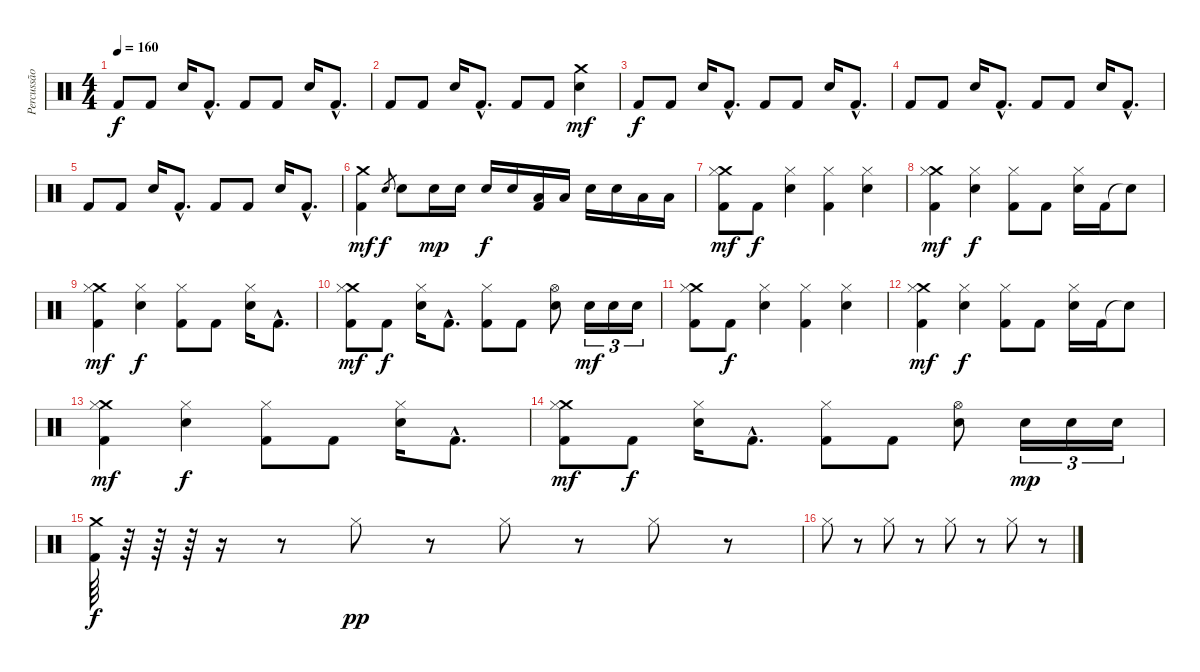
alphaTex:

\track ("Percussão" "Percussão") {instrument percussion}
\staff {score}
\articulation defaults
\ts (4 4)
\tempo 160
\clef neutral
\ks c "Kick (hit) 2".8{dy f} "Kick (hit) 2".8 "Snare (hit) 2".16 "Kick (hit) 2"{hac}.8{d} "Kick (hit) 2".8 "Kick (hit) 2".8 "Snare (hit) 2".16 "Kick (hit) 2"{hac}.8{d}
|
"Kick (hit) 2".8 "Kick (hit) 2".8 "Snare (hit) 2".16 "Kick (hit) 2"{hac}.8{d} "Kick (hit) 2".8 "Kick (hit) 2".8 ("Crash medium (hit)" "Snare (hit) 2").4{dy mf} |
"Kick (hit) 2".8{dy f} "Kick (hit) 2".8 "Snare (hit) 2".16 "Kick (hit) 2"{hac}.8{d} "Kick (hit) 2".8 "Kick (hit) 2".8 "Snare (hit) 2".16 "Kick (hit) 2"{hac}.8{d} |
"Kick (hit) 2".8 "Kick (hit) 2".8 "Snare (hit) 2".16 "Kick (hit) 2"{hac}.8{d} "Kick (hit) 2".8 "Kick (hit) 2".8 "Snare (hit) 2".16 "Kick (hit) 2"{hac}.8{d} |
"Kick (hit) 2".8 "Kick (hit) 2".8 "Snare (hit) 2".16 "Kick (hit) 2"{hac}.8{d} "Kick (hit) 2".8 "Kick (hit) 2".8 "Snare (hit) 2".16 "Kick (hit) 2"{hac}.8{d} |
("Crash medium (hit)" "Kick (hit) 2").4{dy mf} "Snare (hit) 2".8{gr dy f} "Snare (hit) 2".8 "Snare (hit) 2".16{dy mp} "Snare (hit) 2".16 "Snare (hit) 2".16{dy f} "Snare (hit) 2".16 ("Low Tom (hit)" "Kick (hit) 2").16 "Low Tom (hit)".16 "Snare (hit) 2".16 "Snare (hit) 2".16 "Low Tom (hit)".16 "Low Tom (hit)".16 |
("Crash medium (hit)" "Hi-Hat (closed)" "Kick (hit) 2").8{dy mf} "Kick (hit) 2".8{dy f} ("Hi-Hat (closed)" "Snare (hit) 2").4 ("Hi-Hat (closed)" "Kick (hit) 2").4 ("Hi-Hat (closed)" "Snare (hit) 2").4 |
("Crash medium (hit)" "Hi-Hat (closed)" "Kick (hit) 2").4{dy mf} ("Hi-Hat (closed)" "Snare (hit) 2").4{dy f} ("Hi-Hat (closed)" "Kick (hit) 2").8 "Kick (hit) 2".8 ("Hi-Hat (closed)" "Snare (hit) 2").16 "Kick (hit) 2".16 "Snare (hit)"{t}.8 |
("Crash medium (hit)" "Hi-Hat (closed)" "Kick (hit) 2").4{dy mf} ("Hi-Hat (closed)" "Snare (hit) 2").4{dy f} ("Hi-Hat (closed)" "Kick (hit) 2").8 "Kick (hit) 2".8 ("Hi-Hat (closed)" "Snare (hit) 2").16 "Kick (hit) 2"{hac}.8{d} |
("Crash medium (hit)" "Hi-Hat (closed)" "Kick (hit) 2").8{dy mf} "Kick (hit) 2".8{dy f} ("Hi-Hat (closed)" "Snare (hit) 2").16 "Kick (hit) 2"{hac}.8{d} ("Hi-Hat (closed)" "Kick (hit) 2").8 "Kick (hit) 2".8 ("Hi-Hat (open)" "Snare (hit) 2").8 "Snare (hit) 2".16{tu (3 2) dy mf} "Snare (hit) 2".16{tu (3 2)} "Snare (hit) 2".16{tu (3 2)} |
("Crash medium (hit)" "Hi-Hat (closed)" "Kick (hit) 2").8 "Kick (hit) 2".8{dy f} ("Hi-Hat (closed)" "Snare (hit) 2").4 ("Hi-Hat (closed)" "Kick (hit) 2").4 ("Hi-Hat (closed)" "Snare (hit) 2").4 |
("Crash medium (hit)" "Hi-Hat (closed)" "Kick (hit) 2").4{dy mf} ("Hi-Hat (closed)" "Snare (hit) 2").4{dy f} ("Hi-Hat (closed)" "Kick (hit) 2").8 "Kick (hit) 2".8 ("Hi-Hat (closed)" "Snare (hit) 2").16 "Kick (hit) 2".16 "Snare (hit)"{t}.8 |
("Crash medium (hit)" "Hi-Hat (closed)" "Kick (hit) 2").4{dy mf} ("Hi-Hat (closed)" "Snare (hit) 2").4{dy f} ("Hi-Hat (closed)" "Kick (hit) 2").8 "Kick (hit) 2".8 ("Hi-Hat (closed)" "Snare (hit) 2").16 "Kick (hit) 2"{hac}.8{d} |
("Crash medium (hit)" "Hi-Hat (closed)" "Kick (hit) 2").8{dy mf} "Kick (hit) 2".8{dy f} ("Hi-Hat (closed)" "Snare (hit) 2").16 "Kick (hit) 2"{hac}.8{d} ("Hi-Hat (closed)" "Kick (hit) 2").8 "Kick (hit) 2".8 ("Hi-Hat (open)" "Snare (hit) 2").8 "Snare (hit) 2".16{tu (3 2) dy mp} "Snare (hit) 2".16{tu (3 2)} "Snare (hit) 2".16{tu (3 2)} |
("Crash medium (hit)" "Kick (hit) 2").64{dy f} r.64 r.64 r.64 r.16 r.8 "Hi-Hat (closed)".8{dy pp} r.8 "Hi-Hat (closed)".8 r.8 "Hi-Hat (closed)".8 r.8 |
"Hi-Hat (closed)".8 r.8 "Hi-Hat (closed)".8 r.8 "Hi-Hat (closed)".8 r.8 "Hi-Hat (closed)".8 r.8
